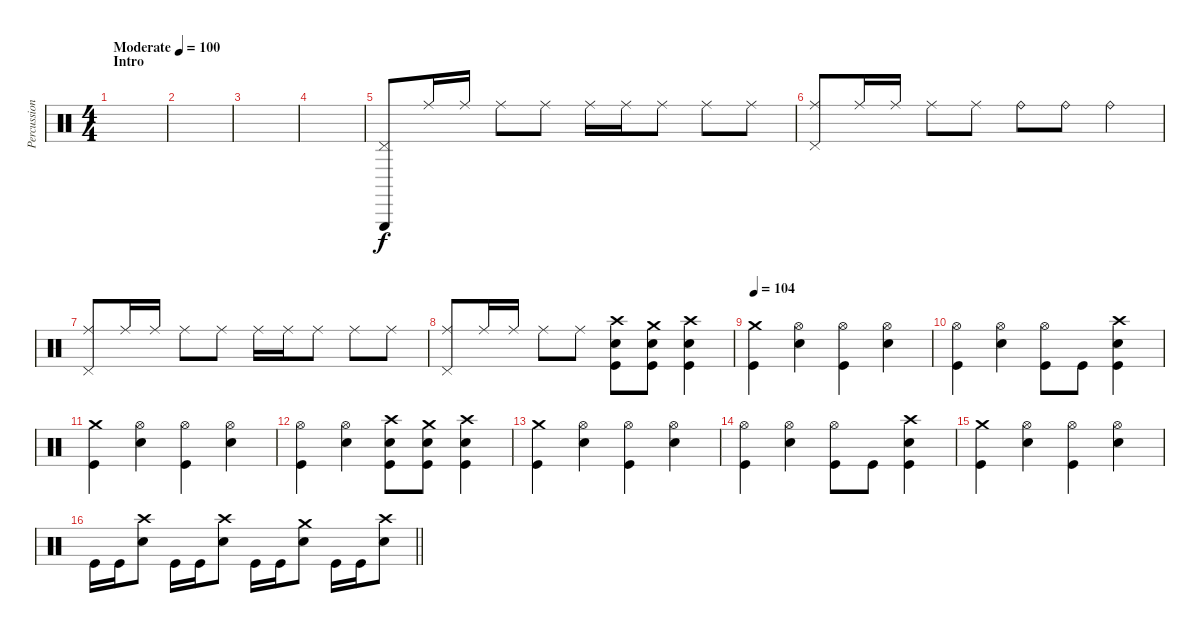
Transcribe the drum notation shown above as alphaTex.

\track ("Percussions" "Percussion") {instrument percussion}
\staff {score}
\articulation defaults
\ts (4 4)
\section ("" "Intro")
\tempo (100 "Moderate")
\clef neutral
\ks c
|
|
|
|
("Triangle (hit)" "Pedal Hi-Hat (hit)").8 "Ride (middle)".16 "Ride (middle)".16 "Ride (middle)".8 "Ride (middle)".8 "Ride (middle)".16 "Ride (middle)".16 "Ride (middle)".8 "Ride (middle)".8 "Ride (middle)".8 |
("Ride (middle)" "Pedal Hi-Hat (hit)").8 "Ride (middle)".16 "Ride (middle)".16 "Ride (middle)".8 "Ride (middle)".8 "Ride (bell)".8 "Ride (bell)".8 "Ride (bell)".4 |
("Ride (middle)" "Pedal Hi-Hat (hit)").8 "Ride (middle)".16 "Ride (middle)".16 "Ride (middle)".8 "Ride (middle)".8 "Ride (middle)".16 "Ride (middle)".16 "Ride (middle)".8 "Ride (middle)".8 "Ride (middle)".8 |
("Ride (middle)" "Pedal Hi-Hat (hit)").8 "Ride (middle)".16 "Ride (middle)".16 "Ride (middle)".8 "Ride (middle)".8 ("Crash high (hit)" "Electric Snare (hit)" "Kick (hit)").8{dy f} ("Crash medium (hit)" "Electric Snare (hit)" "Kick (hit)").8 ("Crash high (hit)" "Electric Snare (hit)" "Kick (hit)").4 |
\tempo 104
("Crash medium (hit)" "Kick (hit)").4 ("Hi-Hat (open)" "Electric Snare (hit)").4 ("Hi-Hat (open)" "Kick (hit)").4 ("Hi-Hat (open)" "Electric Snare (hit)").4 |
("Hi-Hat (open)" "Kick (hit)").4 ("Hi-Hat (open)" "Electric Snare (hit)").4 ("Hi-Hat (open)" "Kick (hit)").8 "Kick (hit)".8 ("Crash high (hit)" "Electric Snare (hit)" "Kick (hit)").4 |
("Crash medium (hit)" "Kick (hit)").4 ("Hi-Hat (open)" "Electric Snare (hit)").4 ("Hi-Hat (open)" "Kick (hit)").4 ("Hi-Hat (open)" "Electric Snare (hit)").4 |
("Hi-Hat (open)" "Kick (hit)").4 ("Hi-Hat (open)" "Electric Snare (hit)").4 ("Crash high (hit)" "Electric Snare (hit)" "Kick (hit)").8 ("Crash medium (hit)" "Electric Snare (hit)" "Kick (hit)").8 ("Crash high (hit)" "Electric Snare (hit)" "Kick (hit)").4 |
("Crash medium (hit)" "Kick (hit)").4 ("Hi-Hat (open)" "Electric Snare (hit)").4 ("Hi-Hat (open)" "Kick (hit)").4 ("Hi-Hat (open)" "Electric Snare (hit)").4 |
("Hi-Hat (open)" "Kick (hit)").4 ("Hi-Hat (open)" "Electric Snare (hit)").4 ("Hi-Hat (open)" "Kick (hit)").8 "Kick (hit)".8 ("Crash high (hit)" "Electric Snare (hit)" "Kick (hit)").4 |
("Crash medium (hit)" "Kick (hit)").4 ("Hi-Hat (open)" "Electric Snare (hit)").4 ("Hi-Hat (open)" "Kick (hit)").4 ("Hi-Hat (open)" "Electric Snare (hit)").4 |
\barLineRight lightlight "Kick (hit)".16 "Kick (hit)".16
("Crash high (hit)" "Electric Snare (hit)").8 "Kick (hit)".16 "Kick (hit)".16 ("Crash high (hit)" "Electric Snare (hit)").8 "Kick (hit)".16 "Kick (hit)".16 ("Crash medium (hit)" "Electric Snare (hit)").8 "Kick (hit)".16 "Kick (hit)".16 ("Crash high (hit)" "Electric Snare (hit)").8
